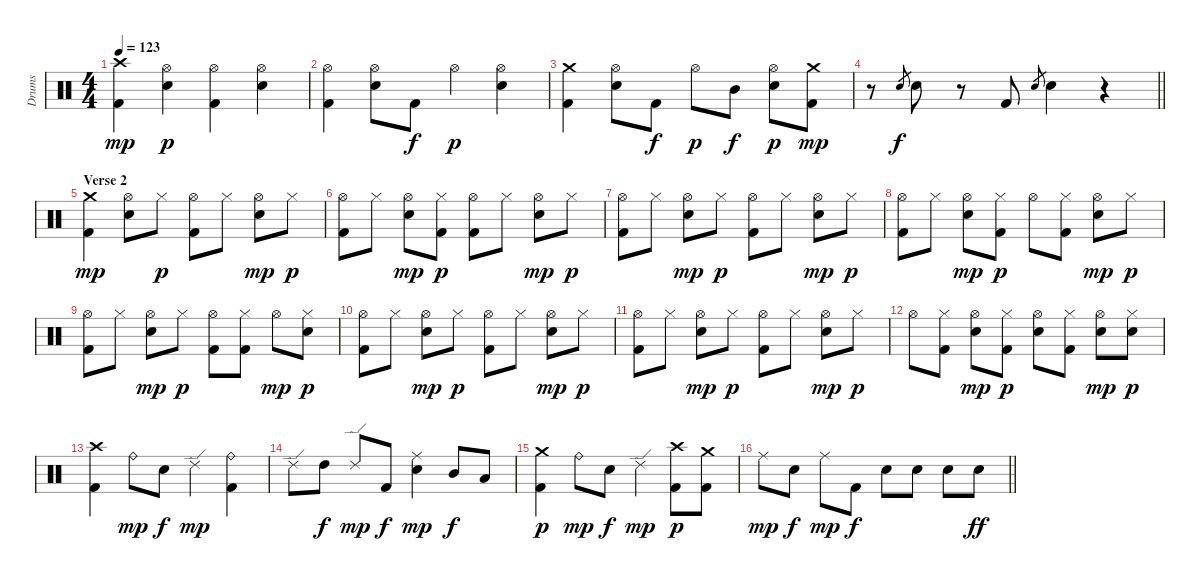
\track ("Drums" "Drums") {instrument percussion}
\staff {score}
\articulation defaults
\ts (4 4)
\tempo 123
\clef neutral
\ks c
("Kick (hit) 2" "Crash high (hit)").4{dy mp} ("Electric Snare (hit)" "Hi-Hat (open)").4{dy p} ("Kick (hit) 2" "Hi-Hat (open)").4 ("Electric Snare (hit)" "Hi-Hat (open)").4 |
("Kick (hit) 2" "Hi-Hat (open)").4 ("Electric Snare (hit)" "Hi-Hat (open)").8 "Kick (hit) 2".8{dy f} "Hi-Hat (open)".4{dy p} ("Electric Snare (hit)" "Hi-Hat (open)").4 |
("Kick (hit) 2" "Crash medium (hit)").4 ("Electric Snare (hit)" "Hi-Hat (open)").8 "Kick (hit) 2".8{dy f} "Hi-Hat (open)".8{dy p} "Mid Tom (hit)".8{dy f} ("Electric Snare (hit)" "Hi-Hat (open)").8{dy p} ("Kick (hit) 2" "Crash medium (hit)").8{dy mp} |
\barLineRight lightlight
r.8 "Electric Snare (hit)".8{gr dy f} "Electric Snare (hit)".8 r.8 "Kick (hit) 2".8 "Electric Snare (hit)".8{gr} "Electric Snare (hit)".4 r.4 |
\section ("" "Verse 2")
("Kick (hit) 2" "Crash medium (hit)").4{dy mp} ("Hi-Hat (open)" "Electric Snare (hit)").8 "Hi-Hat (closed)".8{dy p} ("Hi-Hat (open)" "Kick (hit) 2").8 "Hi-Hat (closed)".8 ("Hi-Hat (open)" "Electric Snare (hit)").8{dy mp} "Hi-Hat (closed)".8{dy p} |
("Hi-Hat (open)" "Kick (hit) 2").8 "Hi-Hat (closed)".8 ("Hi-Hat (open)" "Electric Snare (hit)").8{dy mp} ("Kick (hit) 2" "Hi-Hat (closed)").8{dy p} ("Hi-Hat (open)" "Kick (hit) 2").8 "Hi-Hat (closed)".8 ("Hi-Hat (open)" "Electric Snare (hit)").8{dy mp} "Hi-Hat (closed)".8{dy p} |
("Hi-Hat (open)" "Kick (hit) 2").8 "Hi-Hat (closed)".8 ("Hi-Hat (open)" "Electric Snare (hit)").8{dy mp} "Hi-Hat (closed)".8{dy p} ("Hi-Hat (open)" "Kick (hit) 2").8 "Hi-Hat (closed)".8 ("Hi-Hat (open)" "Electric Snare (hit)").8{dy mp} "Hi-Hat (closed)".8{dy p} |
("Hi-Hat (open)" "Kick (hit) 2").8 "Hi-Hat (closed)".8 ("Hi-Hat (open)" "Electric Snare (hit)").8{dy mp} ("Kick (hit) 2" "Hi-Hat (closed)").8{dy p} "Hi-Hat (open)".8 ("Kick (hit) 2" "Hi-Hat (closed)").8 ("Hi-Hat (open)" "Electric Snare (hit)").8{dy mp} "Hi-Hat (closed)".8{dy p} |
("Hi-Hat (open)" "Kick (hit) 2").8 "Hi-Hat (closed)".8 ("Hi-Hat (open)" "Electric Snare (hit)").8{dy mp} "Hi-Hat (closed)".8{dy p} ("Hi-Hat (open)" "Kick (hit) 2").8 ("Kick (hit) 2" "Hi-Hat (closed)").8 "Hi-Hat (open)".8{dy mp} ("Electric Snare (hit)" "Hi-Hat (closed)").8{dy p} |
("Hi-Hat (open)" "Kick (hit) 2").8 "Hi-Hat (closed)".8 ("Hi-Hat (open)" "Electric Snare (hit)").8{dy mp} "Hi-Hat (closed)".8{dy p} ("Hi-Hat (open)" "Kick (hit) 2").8 "Hi-Hat (closed)".8 ("Hi-Hat (open)" "Electric Snare (hit)").8{dy mp} "Hi-Hat (closed)".8{dy p} |
("Hi-Hat (open)" "Kick (hit) 2").8 "Hi-Hat (closed)".8 ("Hi-Hat (open)" "Electric Snare (hit)").8{dy mp} "Hi-Hat (closed)".8{dy p} ("Hi-Hat (open)" "Kick (hit) 2").8 "Hi-Hat (closed)".8 ("Hi-Hat (open)" "Electric Snare (hit)").8{dy mp} "Hi-Hat (closed)".8{dy p} |
"Hi-Hat (open)".8 ("Kick (hit) 2" "Hi-Hat (closed)").8 ("Hi-Hat (open)" "Electric Snare (hit)").8{dy mp} ("Kick (hit) 2" "Hi-Hat (closed)").8{dy p} ("Hi-Hat (open)" "Electric Snare (hit)").8 ("Kick (hit) 2" "Hi-Hat (closed)").8 ("Hi-Hat (open)" "Electric Snare (hit)").8{dy mp} ("Electric Snare (hit)" "Hi-Hat (closed)").8{dy p} |
("Kick (hit) 2" "Crash high (hit)").4 "Ride (bell)".8{dy mp} "Electric Snare (hit)".8{dy f} "Ride (edge) 2".4{dy mp} ("Ride (bell)" "Kick (hit) 2").4 |
"Ride (edge) 2".8 "High Tom (hit)".8{dy f} "Ride (edge) 2".8{dy mp} "Kick (hit) 2".8{dy f} ("Ride (middle)" "Electric Snare (hit)").4{dy mp} "Mid Tom (hit)".8{dy f} "Low Tom (hit)".8 |
("Kick (hit) 2" "Crash medium (hit)").4{dy p} "Ride (bell)".8{dy mp} "Electric Snare (hit)".8{dy f} "Ride (edge) 2".4{dy mp} ("Crash high (hit)" "Kick (hit) 2").8{dy p} ("Crash medium (hit)" "Kick (hit) 2").8 |
\barLineRight lightlight "Ride (middle)".8{dy mp} "Electric Snare (hit)".8{dy f} "Ride (middle)".8{dy mp} "Kick (hit) 2".8{dy f} "Electric Snare (hit)".8 "Electric Snare (hit)".8 "Electric Snare (hit)".8 "Electric Snare (hit)".8{dy ff}
